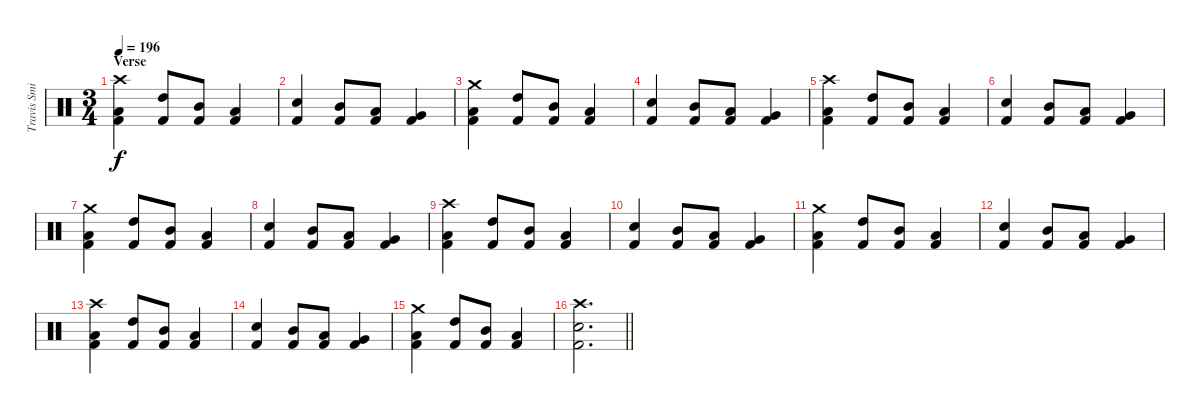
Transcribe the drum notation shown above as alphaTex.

\track ("Travis Smith" "Travis Smi") {instrument percussion}
\staff {score}
\articulation defaults
\ts (3 4)
\section ("" "Verse")
\tempo 196
\clef neutral
\ks c
("Crash high (hit)" "Low Floor Tom (hit)" "Kick (hit) 2").4{dy f} ("High Tom (hit)" "Kick (hit) 2").8 ("Mid Tom (hit)" "Kick (hit) 2").8 ("Low Tom (hit)" "Kick (hit) 2").4 |
("Electric Snare (hit)" "Kick (hit) 2").4 ("Mid Tom (hit)" "Kick (hit) 2").8 ("Low Tom (hit)" "Kick (hit) 2").8 ("Very Low Tom (hit)" "Kick (hit) 2").4 |
("Crash medium (hit)" "Low Floor Tom (hit)" "Kick (hit) 2").4 ("High Tom (hit)" "Kick (hit) 2").8 ("Mid Tom (hit)" "Kick (hit) 2").8 ("Low Tom (hit)" "Kick (hit) 2").4 |
("Electric Snare (hit)" "Kick (hit) 2").4 ("Mid Tom (hit)" "Kick (hit) 2").8 ("Low Tom (hit)" "Kick (hit) 2").8 ("Very Low Tom (hit)" "Kick (hit) 2").4 |
("Crash high (hit)" "Low Floor Tom (hit)" "Kick (hit) 2").4 ("High Tom (hit)" "Kick (hit) 2").8 ("Mid Tom (hit)" "Kick (hit) 2").8 ("Low Tom (hit)" "Kick (hit) 2").4 |
("Electric Snare (hit)" "Kick (hit) 2").4 ("Mid Tom (hit)" "Kick (hit) 2").8 ("Low Tom (hit)" "Kick (hit) 2").8 ("Very Low Tom (hit)" "Kick (hit) 2").4 |
("Crash medium (hit)" "Low Floor Tom (hit)" "Kick (hit) 2").4 ("High Tom (hit)" "Kick (hit) 2").8 ("Mid Tom (hit)" "Kick (hit) 2").8 ("Low Tom (hit)" "Kick (hit) 2").4 |
("Electric Snare (hit)" "Kick (hit) 2").4 ("Mid Tom (hit)" "Kick (hit) 2").8 ("Low Tom (hit)" "Kick (hit) 2").8 ("Very Low Tom (hit)" "Kick (hit) 2").4 |
("Crash high (hit)" "Low Floor Tom (hit)" "Kick (hit) 2").4 ("High Tom (hit)" "Kick (hit) 2").8 ("Mid Tom (hit)" "Kick (hit) 2").8 ("Low Tom (hit)" "Kick (hit) 2").4 |
("Electric Snare (hit)" "Kick (hit) 2").4 ("Mid Tom (hit)" "Kick (hit) 2").8 ("Low Tom (hit)" "Kick (hit) 2").8 ("Very Low Tom (hit)" "Kick (hit) 2").4 |
("Crash medium (hit)" "Low Floor Tom (hit)" "Kick (hit) 2").4 ("High Tom (hit)" "Kick (hit) 2").8 ("Mid Tom (hit)" "Kick (hit) 2").8 ("Low Tom (hit)" "Kick (hit) 2").4 |
("Electric Snare (hit)" "Kick (hit) 2").4 ("Mid Tom (hit)" "Kick (hit) 2").8 ("Low Tom (hit)" "Kick (hit) 2").8 ("Very Low Tom (hit)" "Kick (hit) 2").4 |
("Crash high (hit)" "Low Floor Tom (hit)" "Kick (hit) 2").4 ("High Tom (hit)" "Kick (hit) 2").8 ("Mid Tom (hit)" "Kick (hit) 2").8 ("Low Tom (hit)" "Kick (hit) 2").4 |
("Electric Snare (hit)" "Kick (hit) 2").4 ("Mid Tom (hit)" "Kick (hit) 2").8 ("Low Tom (hit)" "Kick (hit) 2").8 ("Very Low Tom (hit)" "Kick (hit) 2").4 |
("Crash medium (hit)" "Low Floor Tom (hit)" "Kick (hit) 2").4 ("High Tom (hit)" "Kick (hit) 2").8 ("Mid Tom (hit)" "Kick (hit) 2").8 ("Low Tom (hit)" "Kick (hit) 2").4 |
\barLineRight lightlight
("Crash high (hit)" "Electric Snare (hit)" "Kick (hit) 2").2{d}
